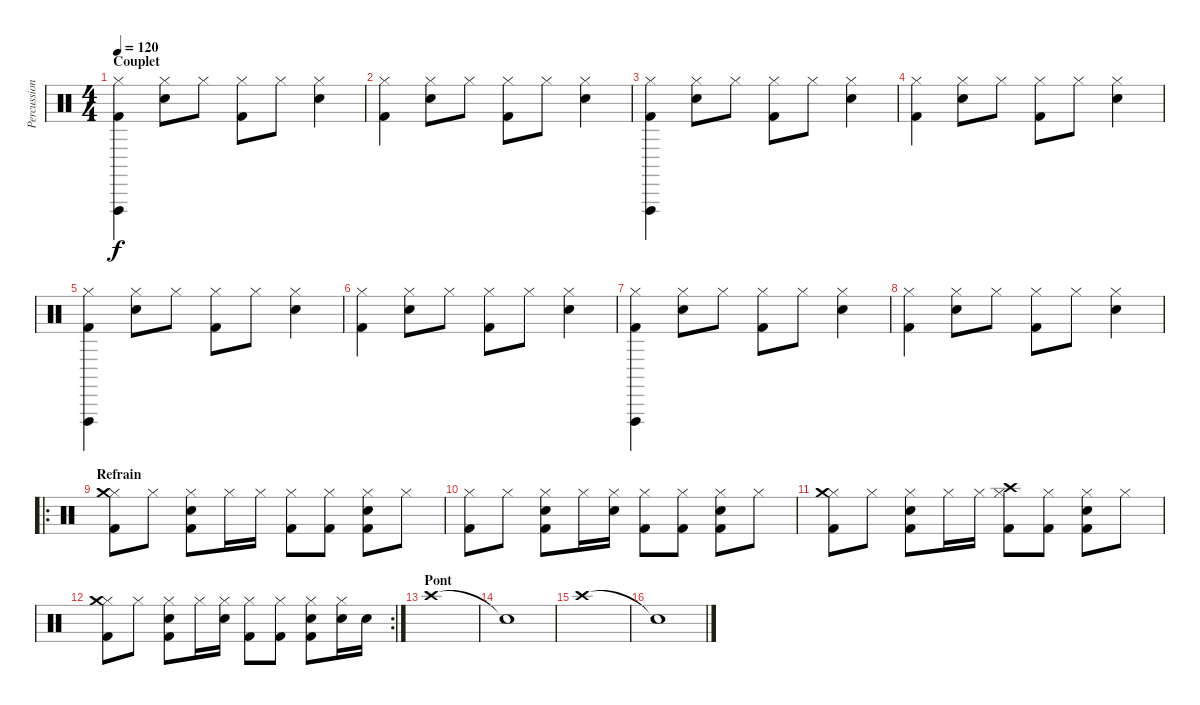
\track ("Percussions" "Percussion") {instrument percussion}
\staff {score}
\articulation defaults
\ts (4 4)
\section ("" "Couplet")
\tempo 120
\clef neutral
\ks c
("Hi-Hat (closed)" "Vibraslap (hit)" "Kick (hit) 2").4{dy f} ("Hi-Hat (closed)" "Snare (hit) 2").8 "Hi-Hat (closed)".8 ("Hi-Hat (closed)" "Kick (hit) 2").8 "Hi-Hat (closed)".8 ("Hi-Hat (closed)" "Snare (hit) 2").4 |
("Hi-Hat (closed)" "Kick (hit) 2").4 ("Hi-Hat (closed)" "Snare (hit) 2").8 "Hi-Hat (closed)".8 ("Hi-Hat (closed)" "Kick (hit) 2").8 "Hi-Hat (closed)".8 ("Hi-Hat (closed)" "Snare (hit) 2").4 |
("Hi-Hat (closed)" "Vibraslap (hit)" "Kick (hit) 2").4 ("Hi-Hat (closed)" "Snare (hit) 2").8 "Hi-Hat (closed)".8 ("Hi-Hat (closed)" "Kick (hit) 2").8 "Hi-Hat (closed)".8 ("Hi-Hat (closed)" "Snare (hit) 2").4 |
("Hi-Hat (closed)" "Kick (hit) 2").4 ("Hi-Hat (closed)" "Snare (hit) 2").8 "Hi-Hat (closed)".8 ("Hi-Hat (closed)" "Kick (hit) 2").8 "Hi-Hat (closed)".8 ("Hi-Hat (closed)" "Snare (hit) 2").4 |
("Hi-Hat (closed)" "Vibraslap (hit)" "Kick (hit) 2").4 ("Hi-Hat (closed)" "Snare (hit) 2").8 "Hi-Hat (closed)".8 ("Hi-Hat (closed)" "Kick (hit) 2").8 "Hi-Hat (closed)".8 ("Hi-Hat (closed)" "Snare (hit) 2").4 |
("Hi-Hat (closed)" "Kick (hit) 2").4 ("Hi-Hat (closed)" "Snare (hit) 2").8 "Hi-Hat (closed)".8 ("Hi-Hat (closed)" "Kick (hit) 2").8 "Hi-Hat (closed)".8 ("Hi-Hat (closed)" "Snare (hit) 2").4 |
("Hi-Hat (closed)" "Vibraslap (hit)" "Kick (hit) 2").4 ("Hi-Hat (closed)" "Snare (hit) 2").8 "Hi-Hat (closed)".8 ("Hi-Hat (closed)" "Kick (hit) 2").8 "Hi-Hat (closed)".8 ("Hi-Hat (closed)" "Snare (hit) 2").4 |
("Hi-Hat (closed)" "Kick (hit) 2").4 ("Hi-Hat (closed)" "Snare (hit) 2").8 "Hi-Hat (closed)".8 ("Hi-Hat (closed)" "Kick (hit) 2").8 "Hi-Hat (closed)".8 ("Hi-Hat (closed)" "Snare (hit) 2").4 |
\ro
\section ("" "Refrain")
("Hi-Hat (closed)" "Crash medium (hit)" "Kick (hit) 2").8 "Hi-Hat (closed)".8 ("Hi-Hat (closed)" "Snare (hit) 2" "Kick (hit) 2").8 "Hi-Hat (closed)".16 "Hi-Hat (closed)".16 ("Hi-Hat (closed)" "Kick (hit) 2").8 ("Hi-Hat (closed)" "Kick (hit) 2").8 ("Hi-Hat (closed)" "Snare (hit) 2" "Kick (hit) 2").8 "Hi-Hat (closed)".8 |
("Hi-Hat (closed)" "Kick (hit) 2").8 "Hi-Hat (closed)".8 ("Hi-Hat (closed)" "Snare (hit) 2" "Kick (hit) 2").8 "Hi-Hat (closed)".16 ("Hi-Hat (closed)" "Snare (hit) 2").16 ("Hi-Hat (closed)" "Kick (hit) 2").8 ("Hi-Hat (closed)" "Kick (hit) 2").8 ("Hi-Hat (closed)" "Snare (hit) 2" "Kick (hit) 2").8 "Hi-Hat (closed)".8 |
("Hi-Hat (closed)" "Crash medium (hit)" "Kick (hit) 2").8 "Hi-Hat (closed)".8 ("Hi-Hat (closed)" "Snare (hit) 2" "Kick (hit) 2").8 "Hi-Hat (closed)".16 "Hi-Hat (closed)".16 ("Hi-Hat (closed)" "Crash high (hit)" "Kick (hit) 2").8 ("Hi-Hat (closed)" "Kick (hit) 2").8 ("Hi-Hat (closed)" "Snare (hit) 2" "Kick (hit) 2").8 "Hi-Hat (closed)".8 |
\rc 2
("Hi-Hat (closed)" "Crash medium (hit)" "Kick (hit) 2").8 "Hi-Hat (closed)".8 ("Hi-Hat (closed)" "Snare (hit) 2" "Kick (hit) 2").8 "Hi-Hat (closed)".16 ("Hi-Hat (closed)" "Snare (hit) 2").16 ("Hi-Hat (closed)" "Kick (hit) 2").8 ("Hi-Hat (closed)" "Kick (hit) 2").8 ("Hi-Hat (closed)" "Snare (hit) 2" "Kick (hit) 2").8 ("Hi-Hat (closed)" "Snare (hit) 2").16 "Snare (hit) 2".16 |
\section ("" "Pont")
"Crash high (hit)".1 |
"Snare (hit)"{t}.1 |
"Crash high (hit)".1 |
"Snare (hit)"{t}.1
